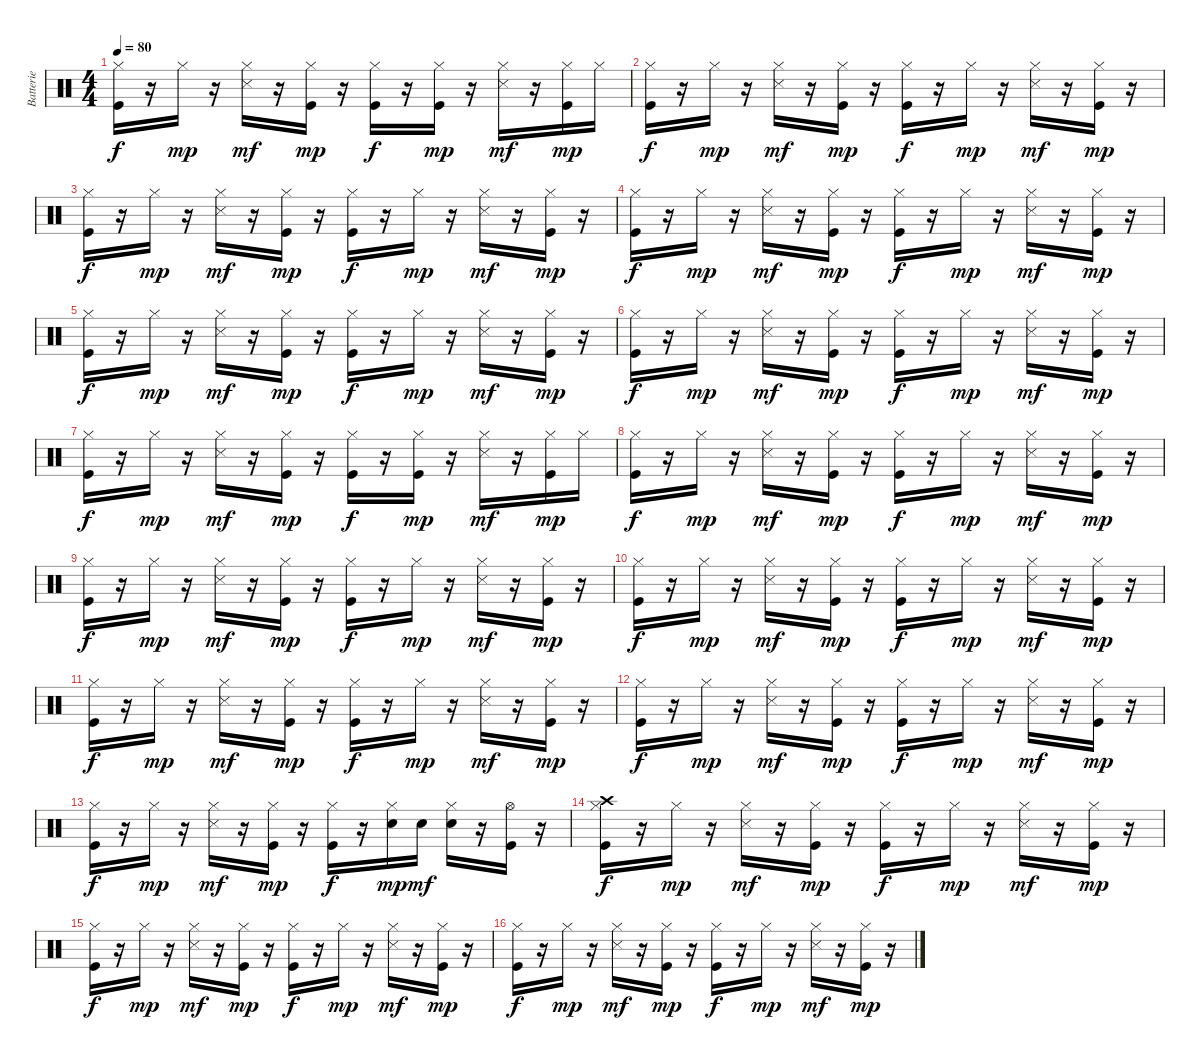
\track ("Batterie" "Batterie") {instrument percussion}
\staff {score}
\articulation defaults
\ts (4 4)
\tempo 80
\clef neutral
\ks c
("Kick (hit)" "Hi-Hat (closed)").16{dy f} r.16 "Hi-Hat (closed)".16{dy mp} r.16 ("Hi-Hat (closed)" "Snare (side stick) 3").16{dy mf} r.16 ("Kick (hit)" "Hi-Hat (closed)").16{dy mp} r.16 ("Kick (hit)" "Hi-Hat (closed)").16{dy f} r.16 ("Kick (hit)" "Hi-Hat (closed)").16{dy mp} r.16 ("Hi-Hat (closed)" "Snare (side stick) 3").16{dy mf} r.16 ("Kick (hit)" "Hi-Hat (closed)").16{dy mp} "Hi-Hat (closed)".16 |
("Kick (hit)" "Hi-Hat (closed)").16{dy f} r.16 "Hi-Hat (closed)".16{dy mp} r.16 ("Hi-Hat (closed)" "Snare (side stick) 3").16{dy mf} r.16 ("Kick (hit)" "Hi-Hat (closed)").16{dy mp} r.16 ("Kick (hit)" "Hi-Hat (closed)").16{dy f} r.16 "Hi-Hat (closed)".16{dy mp} r.16 ("Hi-Hat (closed)" "Snare (side stick) 3").16{dy mf} r.16 ("Kick (hit)" "Hi-Hat (closed)").16{dy mp} r.16 |
("Kick (hit)" "Hi-Hat (closed)").16{dy f} r.16 "Hi-Hat (closed)".16{dy mp} r.16 ("Hi-Hat (closed)" "Snare (side stick) 3").16{dy mf} r.16 ("Kick (hit)" "Hi-Hat (closed)").16{dy mp} r.16 ("Kick (hit)" "Hi-Hat (closed)").16{dy f} r.16 "Hi-Hat (closed)".16{dy mp} r.16 ("Hi-Hat (closed)" "Snare (side stick) 3").16{dy mf} r.16 ("Kick (hit)" "Hi-Hat (closed)").16{dy mp} r.16 |
("Kick (hit)" "Hi-Hat (closed)").16{dy f} r.16 "Hi-Hat (closed)".16{dy mp} r.16 ("Hi-Hat (closed)" "Snare (side stick) 3").16{dy mf} r.16 ("Kick (hit)" "Hi-Hat (closed)").16{dy mp} r.16 ("Kick (hit)" "Hi-Hat (closed)").16{dy f} r.16 "Hi-Hat (closed)".16{dy mp} r.16 ("Hi-Hat (closed)" "Snare (side stick) 3").16{dy mf} r.16 ("Kick (hit)" "Hi-Hat (closed)").16{dy mp} r.16 |
("Kick (hit)" "Hi-Hat (closed)").16{dy f} r.16 "Hi-Hat (closed)".16{dy mp} r.16 ("Hi-Hat (closed)" "Snare (side stick) 3").16{dy mf} r.16 ("Kick (hit)" "Hi-Hat (closed)").16{dy mp} r.16 ("Kick (hit)" "Hi-Hat (closed)").16{dy f} r.16 "Hi-Hat (closed)".16{dy mp} r.16 ("Hi-Hat (closed)" "Snare (side stick) 3").16{dy mf} r.16 ("Kick (hit)" "Hi-Hat (closed)").16{dy mp} r.16 |
("Kick (hit)" "Hi-Hat (closed)").16{dy f} r.16 "Hi-Hat (closed)".16{dy mp} r.16 ("Hi-Hat (closed)" "Snare (side stick) 3").16{dy mf} r.16 ("Kick (hit)" "Hi-Hat (closed)").16{dy mp} r.16 ("Kick (hit)" "Hi-Hat (closed)").16{dy f} r.16 "Hi-Hat (closed)".16{dy mp} r.16 ("Hi-Hat (closed)" "Snare (side stick) 3").16{dy mf} r.16 ("Kick (hit)" "Hi-Hat (closed)").16{dy mp} r.16 |
("Kick (hit)" "Hi-Hat (closed)").16{dy f} r.16 "Hi-Hat (closed)".16{dy mp} r.16 ("Hi-Hat (closed)" "Snare (side stick) 3").16{dy mf} r.16 ("Kick (hit)" "Hi-Hat (closed)").16{dy mp} r.16 ("Kick (hit)" "Hi-Hat (closed)").16{dy f} r.16 ("Kick (hit)" "Hi-Hat (closed)").16{dy mp} r.16 ("Hi-Hat (closed)" "Snare (side stick) 3").16{dy mf} r.16 ("Kick (hit)" "Hi-Hat (closed)").16{dy mp} "Hi-Hat (closed)".16 |
("Kick (hit)" "Hi-Hat (closed)").16{dy f} r.16 "Hi-Hat (closed)".16{dy mp} r.16 ("Hi-Hat (closed)" "Snare (side stick) 3").16{dy mf} r.16 ("Kick (hit)" "Hi-Hat (closed)").16{dy mp} r.16 ("Kick (hit)" "Hi-Hat (closed)").16{dy f} r.16 "Hi-Hat (closed)".16{dy mp} r.16 ("Hi-Hat (closed)" "Snare (side stick) 3").16{dy mf} r.16 ("Kick (hit)" "Hi-Hat (closed)").16{dy mp} r.16 |
("Kick (hit)" "Hi-Hat (closed)").16{dy f} r.16 "Hi-Hat (closed)".16{dy mp} r.16 ("Hi-Hat (closed)" "Snare (side stick) 3").16{dy mf} r.16 ("Kick (hit)" "Hi-Hat (closed)").16{dy mp} r.16 ("Kick (hit)" "Hi-Hat (closed)").16{dy f} r.16 "Hi-Hat (closed)".16{dy mp} r.16 ("Hi-Hat (closed)" "Snare (side stick) 3").16{dy mf} r.16 ("Kick (hit)" "Hi-Hat (closed)").16{dy mp} r.16 |
("Kick (hit)" "Hi-Hat (closed)").16{dy f} r.16 "Hi-Hat (closed)".16{dy mp} r.16 ("Hi-Hat (closed)" "Snare (side stick) 3").16{dy mf} r.16 ("Kick (hit)" "Hi-Hat (closed)").16{dy mp} r.16 ("Kick (hit)" "Hi-Hat (closed)").16{dy f} r.16 "Hi-Hat (closed)".16{dy mp} r.16 ("Hi-Hat (closed)" "Snare (side stick) 3").16{dy mf} r.16 ("Kick (hit)" "Hi-Hat (closed)").16{dy mp} r.16 |
("Kick (hit)" "Hi-Hat (closed)").16{dy f} r.16 "Hi-Hat (closed)".16{dy mp} r.16 ("Hi-Hat (closed)" "Snare (side stick) 3").16{dy mf} r.16 ("Kick (hit)" "Hi-Hat (closed)").16{dy mp} r.16 ("Kick (hit)" "Hi-Hat (closed)").16{dy f} r.16 "Hi-Hat (closed)".16{dy mp} r.16 ("Hi-Hat (closed)" "Snare (side stick) 3").16{dy mf} r.16 ("Kick (hit)" "Hi-Hat (closed)").16{dy mp} r.16 |
("Kick (hit)" "Hi-Hat (closed)").16{dy f} r.16 "Hi-Hat (closed)".16{dy mp} r.16 ("Hi-Hat (closed)" "Snare (side stick) 3").16{dy mf} r.16 ("Kick (hit)" "Hi-Hat (closed)").16{dy mp} r.16 ("Kick (hit)" "Hi-Hat (closed)").16{dy f} r.16 "Hi-Hat (closed)".16{dy mp} r.16 ("Hi-Hat (closed)" "Snare (side stick) 3").16{dy mf} r.16 ("Kick (hit)" "Hi-Hat (closed)").16{dy mp} r.16 |
("Kick (hit)" "Hi-Hat (closed)").16{dy f} r.16 "Hi-Hat (closed)".16{dy mp} r.16 ("Hi-Hat (closed)" "Snare (side stick) 3").16{dy mf} r.16 ("Kick (hit)" "Hi-Hat (closed)").16{dy mp} r.16 ("Kick (hit)" "Hi-Hat (closed)").16{dy f} r.16 ("Snare (hit) 2" "Hi-Hat (closed)").16{dy mp} "Snare (hit) 2".16{dy mf} ("Snare (hit) 2" "Hi-Hat (closed)").16 r.16 ("Kick (hit)" "Hi-Hat (open)").16 r.16 |
("Kick (hit)" "Hi-Hat (closed)" "Crash high (hit)").16{dy f} r.16 "Hi-Hat (closed)".16{dy mp} r.16 ("Hi-Hat (closed)" "Snare (side stick) 3").16{dy mf} r.16 ("Kick (hit)" "Hi-Hat (closed)").16{dy mp} r.16 ("Kick (hit)" "Hi-Hat (closed)").16{dy f} r.16 "Hi-Hat (closed)".16{dy mp} r.16 ("Hi-Hat (closed)" "Snare (side stick) 3").16{dy mf} r.16 ("Kick (hit)" "Hi-Hat (closed)").16{dy mp} r.16 |
("Kick (hit)" "Hi-Hat (closed)").16{dy f} r.16 "Hi-Hat (closed)".16{dy mp} r.16 ("Hi-Hat (closed)" "Snare (side stick) 3").16{dy mf} r.16 ("Kick (hit)" "Hi-Hat (closed)").16{dy mp} r.16 ("Kick (hit)" "Hi-Hat (closed)").16{dy f} r.16 "Hi-Hat (closed)".16{dy mp} r.16 ("Hi-Hat (closed)" "Snare (side stick) 3").16{dy mf} r.16 ("Kick (hit)" "Hi-Hat (closed)").16{dy mp} r.16 |
("Kick (hit)" "Hi-Hat (closed)").16{dy f} r.16 "Hi-Hat (closed)".16{dy mp} r.16 ("Hi-Hat (closed)" "Snare (side stick) 3").16{dy mf} r.16 ("Kick (hit)" "Hi-Hat (closed)").16{dy mp} r.16 ("Kick (hit)" "Hi-Hat (closed)").16{dy f} r.16 "Hi-Hat (closed)".16{dy mp} r.16 ("Hi-Hat (closed)" "Snare (side stick) 3").16{dy mf} r.16 ("Kick (hit)" "Hi-Hat (closed)").16{dy mp} r.16
